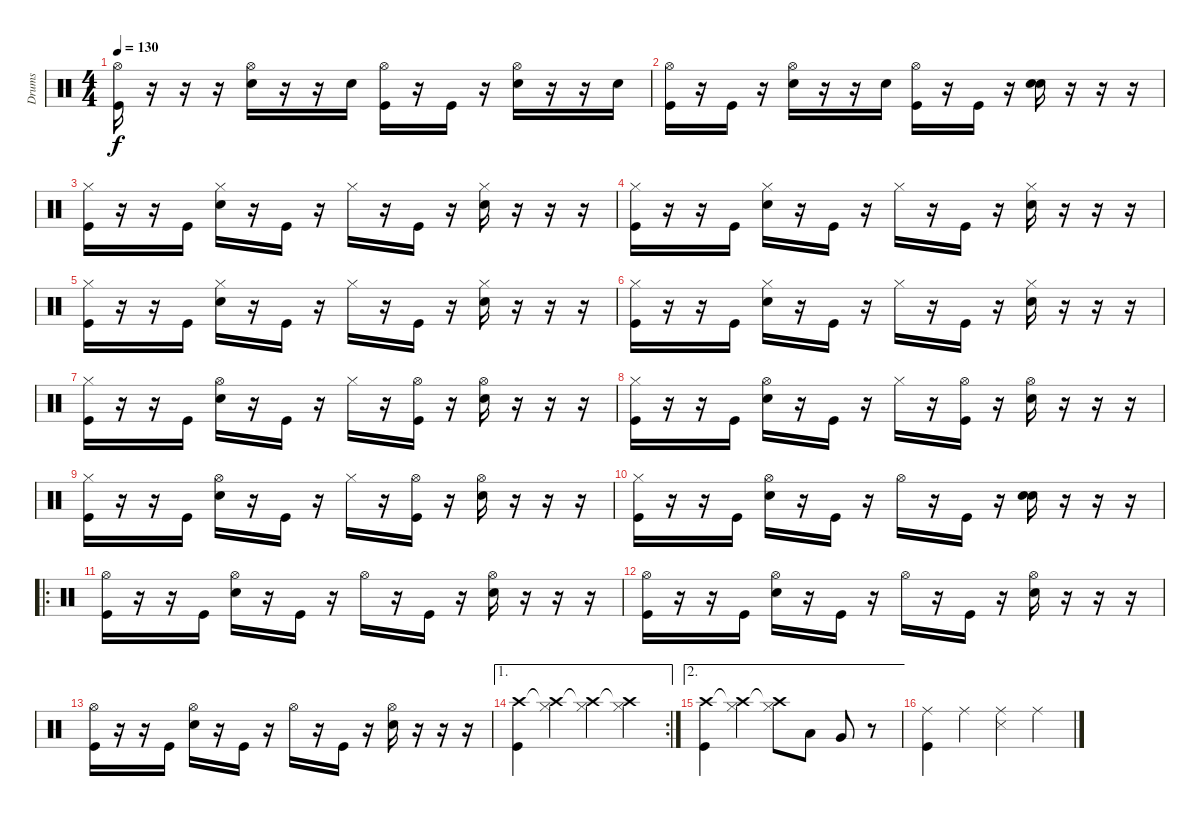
\track ("Drums" "Drums") {instrument percussion}
\staff {score}
\articulation defaults
\ts (4 4)
\tempo 130
\clef neutral
\ks c
("Hi-Hat (open)" "Kick (hit)").16{dy f} r.16 r.16 r.16 ("Hi-Hat (open)" "Snare (hit) 2").16 r.16 r.16 "Snare (hit) 2".16 ("Hi-Hat (open)" "Kick (hit)").16 r.16 "Kick (hit)".16 r.16 ("Hi-Hat (open)" "Snare (hit) 2").16 r.16 r.16 "Snare (hit) 2".16 |
("Hi-Hat (open)" "Kick (hit)").16 r.16 "Kick (hit)".16 r.16 ("Hi-Hat (open)" "Snare (hit) 2").16 r.16 r.16 "Snare (hit) 2".16 ("Hi-Hat (open)" "Kick (hit)").16 r.16 "Kick (hit)".16 r.16 ("Snare (hit) 2" "Snare (hit) 2").16 r.16 r.16 r.16 |
("Hi-Hat (closed)" "Kick (hit)").16 r.16 r.16 "Kick (hit)".16 ("Hi-Hat (closed)" "Snare (hit) 2").16 r.16 "Kick (hit)".16 r.16 "Hi-Hat (closed)".16 r.16 "Kick (hit)".16 r.16 ("Hi-Hat (closed)" "Snare (hit) 2").16 r.16 r.16 r.16 |
("Hi-Hat (closed)" "Kick (hit)").16 r.16 r.16 "Kick (hit)".16 ("Hi-Hat (closed)" "Snare (hit) 2").16 r.16 "Kick (hit)".16 r.16 "Hi-Hat (closed)".16 r.16 "Kick (hit)".16 r.16 ("Hi-Hat (closed)" "Snare (hit) 2").16 r.16 r.16 r.16 |
("Hi-Hat (closed)" "Kick (hit)").16 r.16 r.16 "Kick (hit)".16 ("Hi-Hat (closed)" "Snare (hit) 2").16 r.16 "Kick (hit)".16 r.16 "Hi-Hat (closed)".16 r.16 "Kick (hit)".16 r.16 ("Hi-Hat (closed)" "Snare (hit) 2").16 r.16 r.16 r.16 |
("Hi-Hat (closed)" "Kick (hit)").16 r.16 r.16 "Kick (hit)".16 ("Hi-Hat (closed)" "Snare (hit) 2").16 r.16 "Kick (hit)".16 r.16 "Hi-Hat (closed)".16 r.16 "Kick (hit)".16 r.16 ("Hi-Hat (closed)" "Snare (hit) 2").16 r.16 r.16 r.16 |
("Hi-Hat (closed)" "Kick (hit)").16 r.16 r.16 "Kick (hit)".16 ("Hi-Hat (open)" "Snare (hit) 2").16 r.16 "Kick (hit)".16 r.16 "Hi-Hat (closed)".16 r.16 ("Hi-Hat (open)" "Kick (hit)").16 r.16 ("Hi-Hat (open)" "Snare (hit) 2").16 r.16 r.16 r.16 |
("Hi-Hat (closed)" "Kick (hit)").16 r.16 r.16 "Kick (hit)".16 ("Hi-Hat (open)" "Snare (hit) 2").16 r.16 "Kick (hit)".16 r.16 "Hi-Hat (closed)".16 r.16 ("Hi-Hat (open)" "Kick (hit)").16 r.16 ("Hi-Hat (open)" "Snare (hit) 2").16 r.16 r.16 r.16 |
("Hi-Hat (closed)" "Kick (hit)").16 r.16 r.16 "Kick (hit)".16 ("Hi-Hat (open)" "Snare (hit) 2").16 r.16 "Kick (hit)".16 r.16 "Hi-Hat (closed)".16 r.16 ("Hi-Hat (open)" "Kick (hit)").16 r.16 ("Hi-Hat (open)" "Snare (hit) 2").16 r.16 r.16 r.16 |
("Hi-Hat (closed)" "Kick (hit)").16 r.16 r.16 "Kick (hit)".16 ("Hi-Hat (open)" "Snare (hit) 2").16 r.16 "Kick (hit)".16 r.16 "Hi-Hat (open)".16 r.16 "Kick (hit)".16 r.16 ("Snare (hit) 2" "Snare (hit) 2").16 r.16 r.16 r.16 |
\ro
("Hi-Hat (open)" "Kick (hit)").16 r.16 r.16 "Kick (hit)".16 ("Hi-Hat (open)" "Snare (hit) 2").16 r.16 "Kick (hit)".16 r.16 "Hi-Hat (open)".16 r.16 "Kick (hit)".16 r.16 ("Hi-Hat (open)" "Snare (hit) 2").16 r.16 r.16 r.16 |
("Hi-Hat (open)" "Kick (hit)").16 r.16 r.16 "Kick (hit)".16 ("Hi-Hat (open)" "Snare (hit) 2").16 r.16 "Kick (hit)".16 r.16 "Hi-Hat (open)".16 r.16 "Kick (hit)".16 r.16 ("Hi-Hat (open)" "Snare (hit) 2").16 r.16 r.16 r.16 |
("Hi-Hat (open)" "Kick (hit)").16 r.16 r.16 "Kick (hit)".16 ("Hi-Hat (open)" "Snare (hit) 2").16 r.16 "Kick (hit)".16 r.16 "Hi-Hat (open)".16 r.16 "Kick (hit)".16 r.16 ("Hi-Hat (open)" "Snare (hit) 2").16 r.16 r.16 r.16 |
\ae 1
\rc 2
("Crash high (hit)" "Kick (hit)").4 ("Crash high (hit)"{t} "Hi-Hat (closed)").4 ("Crash high (hit)"{t} "Hi-Hat (closed)").4 ("Crash high (hit)"{t} "Hi-Hat (closed)").4 |
\ae 2
("Crash high (hit)" "Kick (hit)").4 ("Crash high (hit)"{t} "Hi-Hat (closed)").4 ("Crash high (hit)"{t} "Hi-Hat (closed)").8 "Low Tom (hit)".8 "Very Low Tom (hit)".8 r.8 |
("Ride (middle)" "Kick (hit)").4 "Ride (middle)".4 ("Ride (middle)" "Snare (side stick) 3").4 "Ride (middle)".4
